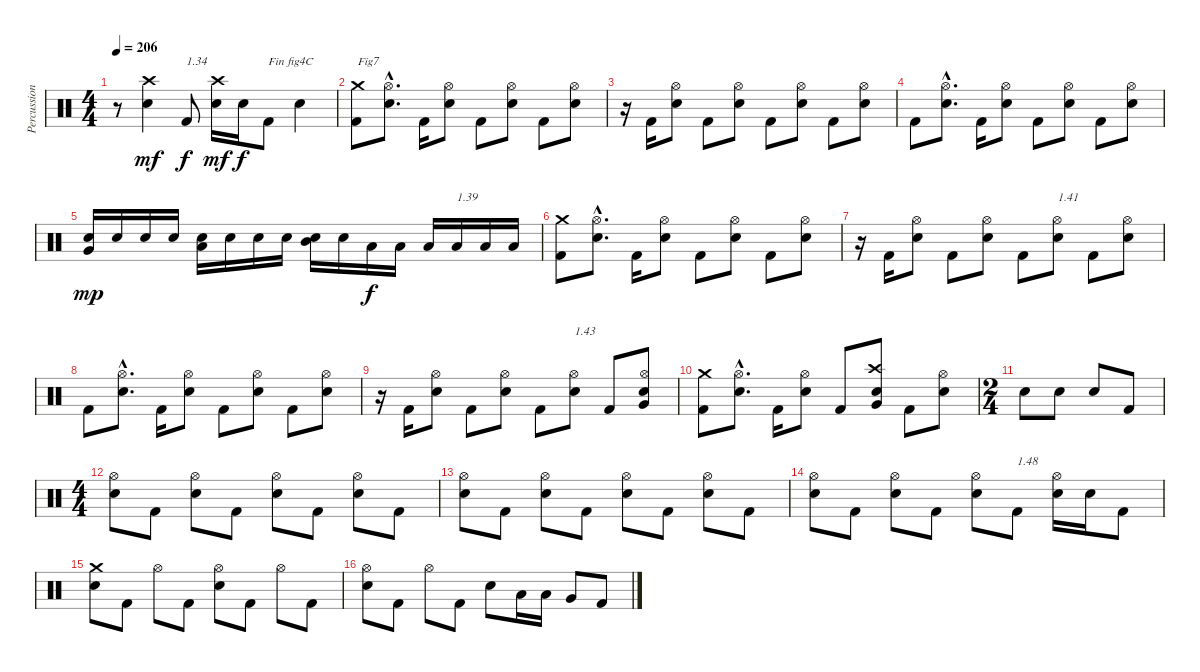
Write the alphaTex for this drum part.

\track ("Percussions" "Percussion") {instrument percussion}
\staff {score}
\articulation defaults
\ts (4 4)
\tempo 206
\clef neutral
\ks c
r.8{dy f} ("Electric Snare (hit)" "Crash high (hit)").4{dy mf} "Kick (hit) 2".8{txt "1.34" dy f} ("Electric Snare (hit)" "Crash high (hit)").16{dy mf} "Electric Snare (hit)".16{dy f} "Kick (hit) 2".8{txt "Fin fig4C"} "Electric Snare (hit)".4 |
("Kick (hit) 2" "Crash medium (hit)").8{txt "Fig7"} ("Electric Snare (hit)"{hac} "Hi-Hat (open)"{hac}).8{d} "Kick (hit) 2".16 ("Electric Snare (hit)" "Hi-Hat (open)").8 "Kick (hit) 2".8 ("Electric Snare (hit)" "Hi-Hat (open)").8 "Kick (hit) 2".8 ("Electric Snare (hit)" "Hi-Hat (open)").8 |
r.16 "Kick (hit) 2".16 ("Electric Snare (hit)" "Hi-Hat (open)").8 "Kick (hit) 2".8 ("Electric Snare (hit)" "Hi-Hat (open)").8 "Kick (hit) 2".8 ("Electric Snare (hit)" "Hi-Hat (open)").8 "Kick (hit) 2".8 ("Electric Snare (hit)" "Hi-Hat (open)").8 |
"Kick (hit) 2".8 ("Electric Snare (hit)"{hac} "Hi-Hat (open)"{hac}).8{d} "Kick (hit) 2".16 ("Electric Snare (hit)" "Hi-Hat (open)").8 "Kick (hit) 2".8 ("Electric Snare (hit)" "Hi-Hat (open)").8 "Kick (hit) 2".8 ("Electric Snare (hit)" "Hi-Hat (open)").8 |
("Very Low Tom (hit)" "Electric Snare (hit)").16{dy mp} "Electric Snare (hit)".16 "Electric Snare (hit)".16 "Electric Snare (hit)".16 ("Low Tom (hit)" "Electric Snare (hit)").16 "Electric Snare (hit)".16 "Electric Snare (hit)".16 "Electric Snare (hit)".16 ("Mid Tom (hit)" "Electric Snare (hit)").16 "Electric Snare (hit)".16 "Low Floor Tom (hit)".16{dy f} "Low Floor Tom (hit)".16 "Low Floor Tom (hit)".16 "Low Floor Tom (hit)".16{txt "1.39"} "Low Floor Tom (hit)".16 "Low Floor Tom (hit)".16 |
("Kick (hit) 2" "Crash medium (hit)").8 ("Electric Snare (hit)"{hac} "Hi-Hat (open)"{hac}).8{d} "Kick (hit) 2".16 ("Electric Snare (hit)" "Hi-Hat (open)").8 "Kick (hit) 2".8 ("Electric Snare (hit)" "Hi-Hat (open)").8 "Kick (hit) 2".8 ("Electric Snare (hit)" "Hi-Hat (open)").8 |
r.16 "Kick (hit) 2".16 ("Electric Snare (hit)" "Hi-Hat (open)").8 "Kick (hit) 2".8 ("Electric Snare (hit)" "Hi-Hat (open)").8 "Kick (hit) 2".8 ("Electric Snare (hit)" "Hi-Hat (open)").8{txt "1.41"} "Kick (hit) 2".8 ("Electric Snare (hit)" "Hi-Hat (open)").8 |
"Kick (hit) 2".8 ("Electric Snare (hit)"{hac} "Hi-Hat (open)"{hac}).8{d} "Kick (hit) 2".16 ("Electric Snare (hit)" "Hi-Hat (open)").8 "Kick (hit) 2".8 ("Electric Snare (hit)" "Hi-Hat (open)").8 "Kick (hit) 2".8 ("Electric Snare (hit)" "Hi-Hat (open)").8 |
r.16 "Kick (hit) 2".16 ("Electric Snare (hit)" "Hi-Hat (open)").8 "Kick (hit) 2".8 ("Electric Snare (hit)" "Hi-Hat (open)").8 "Kick (hit) 2".8 ("Electric Snare (hit)" "Hi-Hat (open)").8{txt "1.43"} "Kick (hit) 2".8 ("Electric Snare (hit)" "Very Low Tom (hit)" "Hi-Hat (open)").8 |
("Kick (hit) 2" "Crash medium (hit)").8 ("Electric Snare (hit)"{hac} "Hi-Hat (open)"{hac}).8{d} "Kick (hit) 2".16 ("Electric Snare (hit)" "Hi-Hat (open)").8 "Kick (hit) 2".8 ("Electric Snare (hit)" "Very Low Tom (hit)" "Crash high (hit)").8 "Kick (hit) 2".8 ("Electric Snare (hit)" "Hi-Hat (open)").8 |
\ts (2 4)
"Electric Snare (hit)".8 "Electric Snare (hit)".8 "Electric Snare (hit)".8 "Kick (hit) 2".8 |
\ts (4 4)
("Electric Snare (hit)" "Hi-Hat (open)").8 "Kick (hit) 2".8 ("Electric Snare (hit)" "Hi-Hat (open)").8 "Kick (hit) 2".8 ("Electric Snare (hit)" "Hi-Hat (open)").8 "Kick (hit) 2".8 ("Electric Snare (hit)" "Hi-Hat (open)").8 "Kick (hit) 2".8 |
("Electric Snare (hit)" "Hi-Hat (open)").8 "Kick (hit) 2".8 ("Electric Snare (hit)" "Hi-Hat (open)").8 "Kick (hit) 2".8 ("Electric Snare (hit)" "Hi-Hat (open)").8 "Kick (hit) 2".8 ("Electric Snare (hit)" "Hi-Hat (open)").8 "Kick (hit) 2".8 |
("Electric Snare (hit)" "Hi-Hat (open)").8 "Kick (hit) 2".8 ("Electric Snare (hit)" "Hi-Hat (open)").8 "Kick (hit) 2".8 ("Electric Snare (hit)" "Hi-Hat (open)").8 "Kick (hit) 2".8{txt "1.48"} ("Electric Snare (hit)" "Hi-Hat (open)").16 "Electric Snare (hit)".16 "Kick (hit) 2".8 |
("Electric Snare (hit)" "Crash medium (hit)").8 "Kick (hit) 2".8 "Hi-Hat (open)".8 "Kick (hit) 2".8 ("Electric Snare (hit)" "Hi-Hat (open)").8 "Kick (hit) 2".8 "Hi-Hat (open)".8 "Kick (hit) 2".8 |
("Electric Snare (hit)" "Hi-Hat (open)").8 "Kick (hit) 2".8 "Hi-Hat (open)".8 "Kick (hit) 2".8 "Electric Snare (hit)".8 "Low Tom (hit)".16 "Low Tom (hit)".16 "Very Low Tom (hit)".8 "Kick (hit) 2".8
